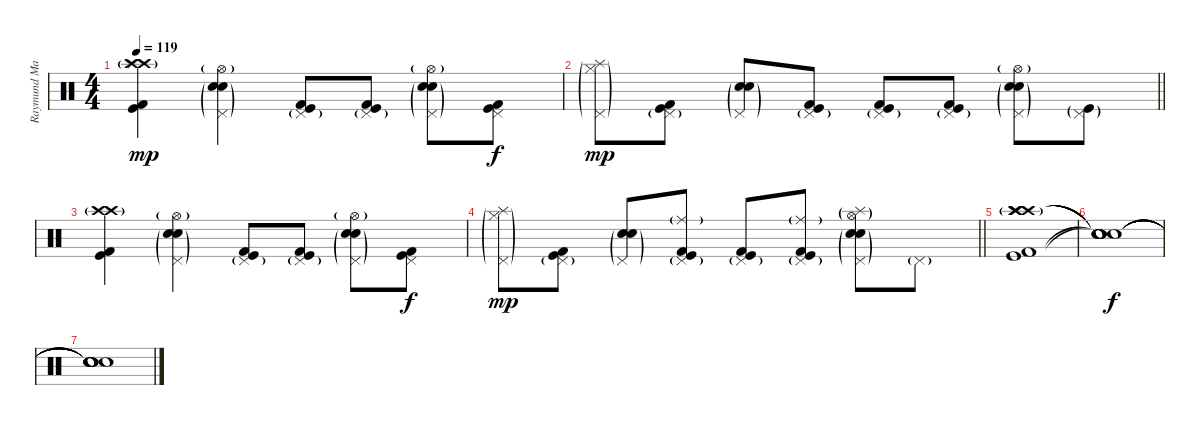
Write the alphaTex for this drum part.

\track ("Raymund Marasigan(Drums)" "Raymund Ma") {instrument percussion}
\staff {score}
\articulation defaults
\ts (4 4)
\tempo 119
\clef neutral
\ks c
("Crash high (hit)"{g} "Crash high (hit)"{g} "Kick (hit) 2" "Kick (hit)" "Splash (hit)"{g}).4{dy mp} ("Pedal Hi-Hat (hit)"{g} "Electric Snare (hit)" "Snare (hit) 2"{g} "Hi-Hat (open)"{g}).4 ("Pedal Hi-Hat (hit)"{g} "Kick (hit) 2" "Kick (hit)").8 ("Pedal Hi-Hat (hit)"{g} "Kick (hit) 2" "Kick (hit)").8 ("Pedal Hi-Hat (hit)"{g} "Electric Snare (hit)" "Snare (hit) 2"{g} "Hi-Hat (open)"{g}).8 ("Pedal Hi-Hat (hit)" "Kick (hit) 2" "Kick (hit)").8{dy f} |
\barLineRight lightlight
("Pedal Hi-Hat (hit)"{g} "Hi-Hat (closed)"{g} "Splash (hit)"{g}).8{dy mp} ("Pedal Hi-Hat (hit)"{g} "Kick (hit) 2" "Kick (hit)").8 ("Pedal Hi-Hat (hit)"{g} "Electric Snare (hit)" "Snare (hit) 2"{g}).8 ("Pedal Hi-Hat (hit)"{g} "Kick (hit) 2" "Kick (hit)").8 ("Pedal Hi-Hat (hit)"{g} "Kick (hit) 2" "Kick (hit)").8 ("Pedal Hi-Hat (hit)"{g} "Kick (hit) 2" "Kick (hit)").8 ("Pedal Hi-Hat (hit)"{g} "Electric Snare (hit)" "Snare (hit) 2"{g} "Hi-Hat (open)"{g}).8 ("Pedal Hi-Hat (hit)"{g} "Kick (hit)"{g}).8 |
("Crash high (hit)"{g} "Crash high (hit)"{g} "Kick (hit) 2" "Kick (hit)").4 ("Pedal Hi-Hat (hit)"{g} "Electric Snare (hit)" "Snare (hit) 2"{g} "Hi-Hat (open)"{g}).4 ("Pedal Hi-Hat (hit)"{g} "Kick (hit) 2" "Kick (hit)").8 ("Pedal Hi-Hat (hit)"{g} "Kick (hit) 2" "Kick (hit)").8 ("Pedal Hi-Hat (hit)"{g} "Electric Snare (hit)" "Snare (hit) 2"{g} "Hi-Hat (open)"{g}).8 ("Pedal Hi-Hat (hit)" "Kick (hit) 2" "Kick (hit)").8{dy f} |
\barLineRight lightlight
("Pedal Hi-Hat (hit)"{g} "Hi-Hat (closed)"{g} "Splash (hit)"{g}).8{dy mp} ("Pedal Hi-Hat (hit)"{g} "Kick (hit) 2" "Kick (hit)").8 ("Pedal Hi-Hat (hit)"{g} "Electric Snare (hit)" "Snare (hit) 2"{g}).8 ("Pedal Hi-Hat (hit)"{g} "Kick (hit) 2" "Kick (hit)" "Ride (middle)"{g}).8 ("Pedal Hi-Hat (hit)"{g} "Kick (hit) 2" "Kick (hit)").8 ("Pedal Hi-Hat (hit)"{g} "Kick (hit) 2" "Kick (hit)" "Ride (middle)"{g}).8 ("Pedal Hi-Hat (hit)"{g} "Electric Snare (hit)" "Snare (hit) 2"{g} "Hi-Hat (open)"{g} "Splash (hit)"{g}).8 "Pedal Hi-Hat (hit)"{g}.8 |
("Crash high (hit)"{g} "Crash high (hit)"{g} "Crash high (hit)"{g} "Crash high (hit)"{g} "Kick (hit) 2" "Kick (hit)").1 |
("Snare (hit)"{t} "Snare (hit)"{t} "Snare (hit)"{t} "Snare (hit)"{t} "Snare (hit)"{t} "Snare (hit)"{t}).1{dy f} |
("Snare (hit)"{t} "Snare (hit)"{t} "Snare (hit)"{t} "Snare (hit)"{t} "Snare (hit)"{t} "Snare (hit)"{t}).1
